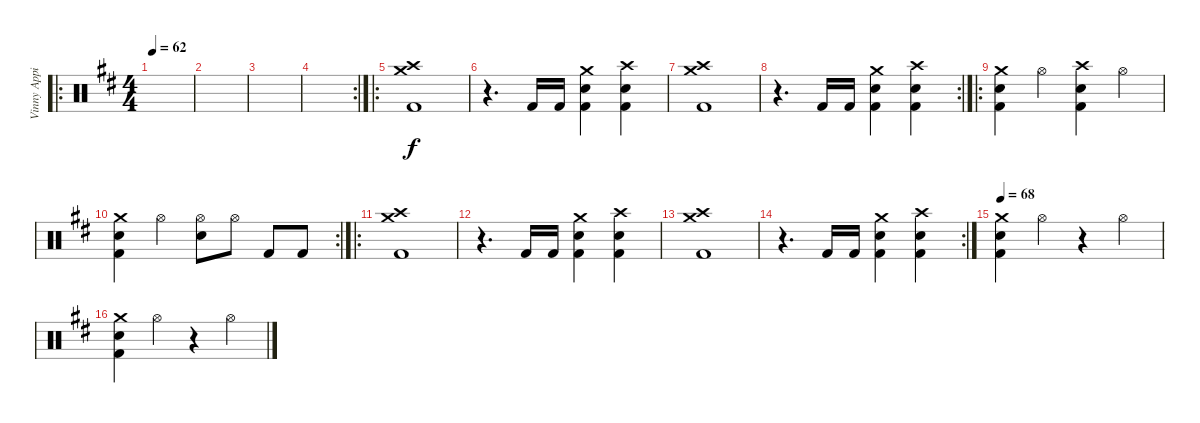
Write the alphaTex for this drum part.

\track ("Vinny Appice" "Vinny Appi") {instrument percussion}
\staff {score}
\articulation defaults
\ro
\ts (4 4)
\tempo 62
\clef neutral
\ks d
|
|
|
\rc 2
|
\ro
("Crash medium (hit)" "Crash high (hit)" "Kick (hit) 2").1 |
r.4{d} "Kick (hit) 2".16 "Kick (hit) 2".16 ("Crash medium (hit)" "Snare (hit) 2" "Kick (hit) 2").4 ("Crash high (hit)" "Snare (hit) 2" "Kick (hit) 2").4 |
("Crash medium (hit)" "Crash high (hit)" "Kick (hit) 2").1 |
\rc 2
r.4{d} "Kick (hit) 2".16 "Kick (hit) 2".16 ("Crash medium (hit)" "Snare (hit) 2" "Kick (hit) 2").4 ("Crash high (hit)" "Snare (hit) 2" "Kick (hit) 2").4 |
\ro
("Crash medium (hit)" "Snare (hit) 2" "Kick (hit) 2").4 "Hi-Hat (open)".4 ("Crash high (hit)" "Snare (hit) 2" "Kick (hit) 2").4 "Hi-Hat (open)".4 |
\rc 2
("Crash medium (hit)" "Snare (hit) 2" "Kick (hit) 2").4 "Hi-Hat (open)".4 ("Hi-Hat (open)" "Snare (hit) 2").8 "Hi-Hat (open)".8 "Kick (hit) 2".8 "Kick (hit) 2".8 |
\ro
("Crash medium (hit)" "Crash high (hit)" "Kick (hit) 2").1 |
r.4{d} "Kick (hit) 2".16 "Kick (hit) 2".16 ("Crash medium (hit)" "Snare (hit) 2" "Kick (hit) 2").4 ("Crash high (hit)" "Snare (hit) 2" "Kick (hit) 2").4 |
("Crash medium (hit)" "Crash high (hit)" "Kick (hit) 2").1 |
\rc 2
r.4{d} "Kick (hit) 2".16 "Kick (hit) 2".16 ("Crash medium (hit)" "Snare (hit) 2" "Kick (hit) 2").4 ("Crash high (hit)" "Snare (hit) 2" "Kick (hit) 2").4 |
\tempo 68
("Crash medium (hit)" "Snare (hit) 2" "Kick (hit) 2").4 "Hi-Hat (open)".4 r.4 "Hi-Hat (open)".4 |
("Crash medium (hit)" "Snare (hit) 2" "Kick (hit) 2").4 "Hi-Hat (open)".4 r.4 "Hi-Hat (open)".4
